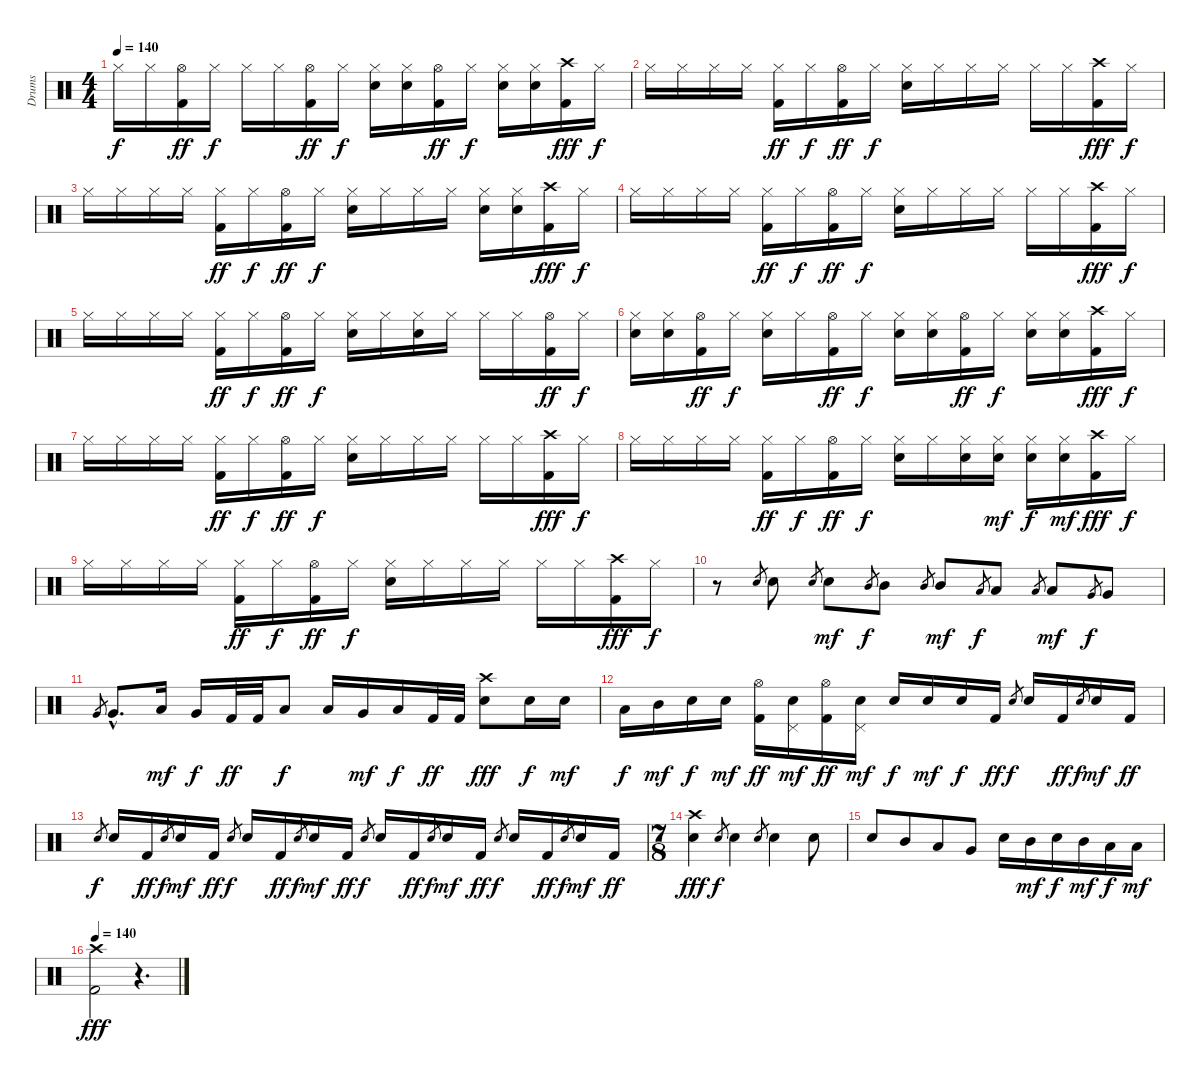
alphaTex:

\track ("Drums" "Drums") {instrument percussion}
\staff {score}
\articulation defaults
\ts (4 4)
\tempo 140
\clef neutral
\ks c "Hi-Hat (closed)".16{dy f} "Hi-Hat (closed)".16
("Hi-Hat (open)" "Kick (hit) 2").16{dy ff} "Hi-Hat (closed)".16{dy f} "Hi-Hat (closed)".16 "Hi-Hat (closed)".16 ("Hi-Hat (open)" "Kick (hit) 2").16{dy ff} "Hi-Hat (closed)".16{dy f} ("Hi-Hat (closed)" "Snare (hit) 2").16 ("Hi-Hat (closed)" "Snare (hit) 2").16 ("Hi-Hat (open)" "Kick (hit) 2").16{dy ff} "Hi-Hat (closed)".16{dy f} ("Hi-Hat (closed)" "Snare (hit) 2").16 ("Hi-Hat (closed)" "Snare (hit) 2").16 ("Kick (hit) 2" "Crash high (hit)").16{dy fff} "Hi-Hat (closed)".16{dy f} |
"Hi-Hat (closed)".16 "Hi-Hat (closed)".16 "Hi-Hat (closed)".16 "Hi-Hat (closed)".16 ("Hi-Hat (closed)" "Kick (hit) 2").16{dy ff} "Hi-Hat (closed)".16{dy f} ("Hi-Hat (open)" "Kick (hit) 2").16{dy ff} "Hi-Hat (closed)".16{dy f} ("Hi-Hat (closed)" "Snare (hit) 2").16 "Hi-Hat (closed)".16 "Hi-Hat (closed)".16 "Hi-Hat (closed)".16 "Hi-Hat (closed)".16 "Hi-Hat (closed)".16 ("Kick (hit) 2" "Crash high (hit)").16{dy fff} "Hi-Hat (closed)".16{dy f} |
"Hi-Hat (closed)".16 "Hi-Hat (closed)".16 "Hi-Hat (closed)".16 "Hi-Hat (closed)".16 ("Hi-Hat (closed)" "Kick (hit) 2").16{dy ff} "Hi-Hat (closed)".16{dy f} ("Hi-Hat (open)" "Kick (hit) 2").16{dy ff} "Hi-Hat (closed)".16{dy f} ("Hi-Hat (closed)" "Snare (hit) 2").16 "Hi-Hat (closed)".16 "Hi-Hat (closed)".16 "Hi-Hat (closed)".16 ("Hi-Hat (closed)" "Snare (hit) 2").16 ("Hi-Hat (closed)" "Snare (hit) 2").16 ("Kick (hit) 2" "Crash high (hit)").16{dy fff} "Hi-Hat (closed)".16{dy f} |
"Hi-Hat (closed)".16 "Hi-Hat (closed)".16 "Hi-Hat (closed)".16 "Hi-Hat (closed)".16 ("Hi-Hat (closed)" "Kick (hit) 2").16{dy ff} "Hi-Hat (closed)".16{dy f} ("Hi-Hat (open)" "Kick (hit) 2").16{dy ff} "Hi-Hat (closed)".16{dy f} ("Hi-Hat (closed)" "Snare (hit) 2").16 "Hi-Hat (closed)".16 "Hi-Hat (closed)".16 "Hi-Hat (closed)".16 "Hi-Hat (closed)".16 "Hi-Hat (closed)".16 ("Kick (hit) 2" "Crash high (hit)").16{dy fff} "Hi-Hat (closed)".16{dy f} |
"Hi-Hat (closed)".16 "Hi-Hat (closed)".16 "Hi-Hat (closed)".16 "Hi-Hat (closed)".16 ("Hi-Hat (closed)" "Kick (hit) 2").16{dy ff} "Hi-Hat (closed)".16{dy f} ("Hi-Hat (open)" "Kick (hit) 2").16{dy ff} "Hi-Hat (closed)".16{dy f} ("Hi-Hat (closed)" "Snare (hit) 2").16 "Hi-Hat (closed)".16 ("Hi-Hat (closed)" "Snare (hit) 2").16 "Hi-Hat (closed)".16 "Hi-Hat (closed)".16 "Hi-Hat (closed)".16 ("Hi-Hat (open)" "Kick (hit) 2").16{dy ff} "Hi-Hat (closed)".16{dy f} |
("Hi-Hat (closed)" "Snare (hit) 2").16 ("Hi-Hat (closed)" "Snare (hit) 2").16 ("Hi-Hat (open)" "Kick (hit) 2").16{dy ff} "Hi-Hat (closed)".16{dy f} ("Hi-Hat (closed)" "Snare (hit) 2").16 "Hi-Hat (closed)".16 ("Hi-Hat (open)" "Kick (hit) 2").16{dy ff} "Hi-Hat (closed)".16{dy f} ("Hi-Hat (closed)" "Snare (hit) 2").16 ("Hi-Hat (closed)" "Snare (hit) 2").16 ("Hi-Hat (open)" "Kick (hit) 2").16{dy ff} "Hi-Hat (closed)".16{dy f} ("Hi-Hat (closed)" "Snare (hit) 2").16 ("Hi-Hat (closed)" "Snare (hit) 2").16 ("Kick (hit) 2" "Crash high (hit)").16{dy fff} "Hi-Hat (closed)".16{dy f} |
"Hi-Hat (closed)".16 "Hi-Hat (closed)".16 "Hi-Hat (closed)".16 "Hi-Hat (closed)".16 ("Hi-Hat (closed)" "Kick (hit) 2").16{dy ff} "Hi-Hat (closed)".16{dy f} ("Hi-Hat (open)" "Kick (hit) 2").16{dy ff} "Hi-Hat (closed)".16{dy f} ("Hi-Hat (closed)" "Snare (hit) 2").16 "Hi-Hat (closed)".16 "Hi-Hat (closed)".16 "Hi-Hat (closed)".16 "Hi-Hat (closed)".16 "Hi-Hat (closed)".16 ("Kick (hit) 2" "Crash high (hit)").16{dy fff} "Hi-Hat (closed)".16{dy f} |
"Hi-Hat (closed)".16 "Hi-Hat (closed)".16 "Hi-Hat (closed)".16 "Hi-Hat (closed)".16 ("Hi-Hat (closed)" "Kick (hit) 2").16{dy ff} "Hi-Hat (closed)".16{dy f} ("Hi-Hat (open)" "Kick (hit) 2").16{dy ff} "Hi-Hat (closed)".16{dy f} ("Hi-Hat (closed)" "Snare (hit) 2").16 "Hi-Hat (closed)".16 ("Hi-Hat (closed)" "Snare (hit) 2").16 ("Hi-Hat (closed)" "Snare (hit) 2").16{dy mf} ("Hi-Hat (closed)" "Snare (hit) 2").16{dy f} ("Hi-Hat (closed)" "Snare (hit) 2").16{dy mf} ("Kick (hit) 2" "Crash high (hit)").16{dy fff} "Hi-Hat (closed)".16{dy f} |
"Hi-Hat (closed)".16 "Hi-Hat (closed)".16 "Hi-Hat (closed)".16 "Hi-Hat (closed)".16 ("Hi-Hat (closed)" "Kick (hit) 2").16{dy ff} "Hi-Hat (closed)".16{dy f} ("Hi-Hat (open)" "Kick (hit) 2").16{dy ff} "Hi-Hat (closed)".16{dy f} ("Hi-Hat (closed)" "Snare (hit) 2").16 "Hi-Hat (closed)".16 "Hi-Hat (closed)".16 "Hi-Hat (closed)".16 "Hi-Hat (closed)".16 "Hi-Hat (closed)".16 ("Kick (hit) 2" "Crash high (hit)").16{dy fff} "Hi-Hat (closed)".16{dy f} |
r.8 "Snare (hit) 2".8{gr} "Snare (hit) 2".8 "Snare (hit) 2".8{gr} "Snare (hit) 2".8{dy mf} "Mid Tom (hit)".8{gr dy f} "Mid Tom (hit)".8 "Mid Tom (hit)".8{gr} "Mid Tom (hit)".8{dy mf} "Low Tom (hit)".8{gr dy f} "Low Tom (hit)".8 "Low Tom (hit)".8{gr} "Low Tom (hit)".8{dy mf} "Very Low Tom (hit)".8{gr dy f} "Very Low Tom (hit)".8 |
"Very Low Tom (hit)".8{gr} "Very Low Tom (hit)"{hac}.8{d} "Low Tom (hit)".16{dy mf} "Very Low Tom (hit)".16{dy f} "Kick (hit) 2".32{dy ff} "Kick (hit) 2".32 "Low Tom (hit)".8{dy f} "Low Tom (hit)".16 "Very Low Tom (hit)".16{dy mf} "Low Floor Tom (hit)".16{dy f} "Kick (hit) 2".32{dy ff} "Kick (hit) 2".32 ("Snare (hit) 2" "Crash high (hit)").8{dy fff} "Snare (hit) 2".16{dy f} "Snare (hit) 2".16{dy mf} |
"Low Tom (hit)".16{dy f} "Mid Tom (hit)".16{dy mf} "Snare (hit) 2".16{dy f} "Snare (hit) 2".16{dy mf} ("Hi-Hat (open)" "Kick (hit) 2").16{dy ff} ("Pedal Hi-Hat (hit)" "Snare (hit) 2").16{dy mf} ("Hi-Hat (open)" "Kick (hit) 2").16{dy ff} ("Pedal Hi-Hat (hit)" "Snare (hit) 2").16{dy mf} "Snare (hit) 2".16{dy f} "Snare (hit) 2".16{dy mf} "Snare (hit) 2".16{dy f} "Kick (hit) 2".16{dy ff} "Snare (hit) 2".8{gr dy f} "Snare (hit) 2".16 "Kick (hit) 2".16{dy ff} "Snare (hit) 2".8{gr dy f} "Snare (hit) 2".16{dy mf} "Kick (hit) 2".16{dy ff} |
"Snare (hit) 2".8{gr dy f} "Snare (hit) 2".16 "Kick (hit) 2".16{dy ff} "Snare (hit) 2".8{gr dy f} "Snare (hit) 2".16{dy mf} "Kick (hit) 2".16{dy ff} "Snare (hit) 2".8{gr dy f} "Snare (hit) 2".16 "Kick (hit) 2".16{dy ff} "Snare (hit) 2".8{gr dy f} "Snare (hit) 2".16{dy mf} "Kick (hit) 2".16{dy ff} "Snare (hit) 2".8{gr dy f} "Snare (hit) 2".16 "Kick (hit) 2".16{dy ff} "Snare (hit) 2".8{gr dy f} "Snare (hit) 2".16{dy mf} "Kick (hit) 2".16{dy ff} "Snare (hit) 2".8{gr dy f} "Snare (hit) 2".16 "Kick (hit) 2".16{dy ff} "Snare (hit) 2".8{gr dy f} "Snare (hit) 2".16{dy mf} "Kick (hit) 2".16{dy ff} |
\ts (7 8)
("Snare (hit) 2" "Crash high (hit)").4{dy fff} "Snare (hit) 2".8{gr dy f} "Snare (hit) 2".4 "Snare (hit) 2".8{gr} "Snare (hit) 2".4 "Snare (hit) 2".8 |
"Snare (hit) 2".8 "Mid Tom (hit)".8 "Low Tom (hit)".8 "Very Low Tom (hit)".8 "Snare (hit) 2".16 "Mid Tom (hit)".16{dy mf} "Snare (hit) 2".16{dy f} "Mid Tom (hit)".16{dy mf} "Low Tom (hit)".16{dy f} "Low Tom (hit)".16{dy mf} |
\tempo 140
("Kick (hit) 2" "Crash high (hit)").2{dy fff} r.4{d}
